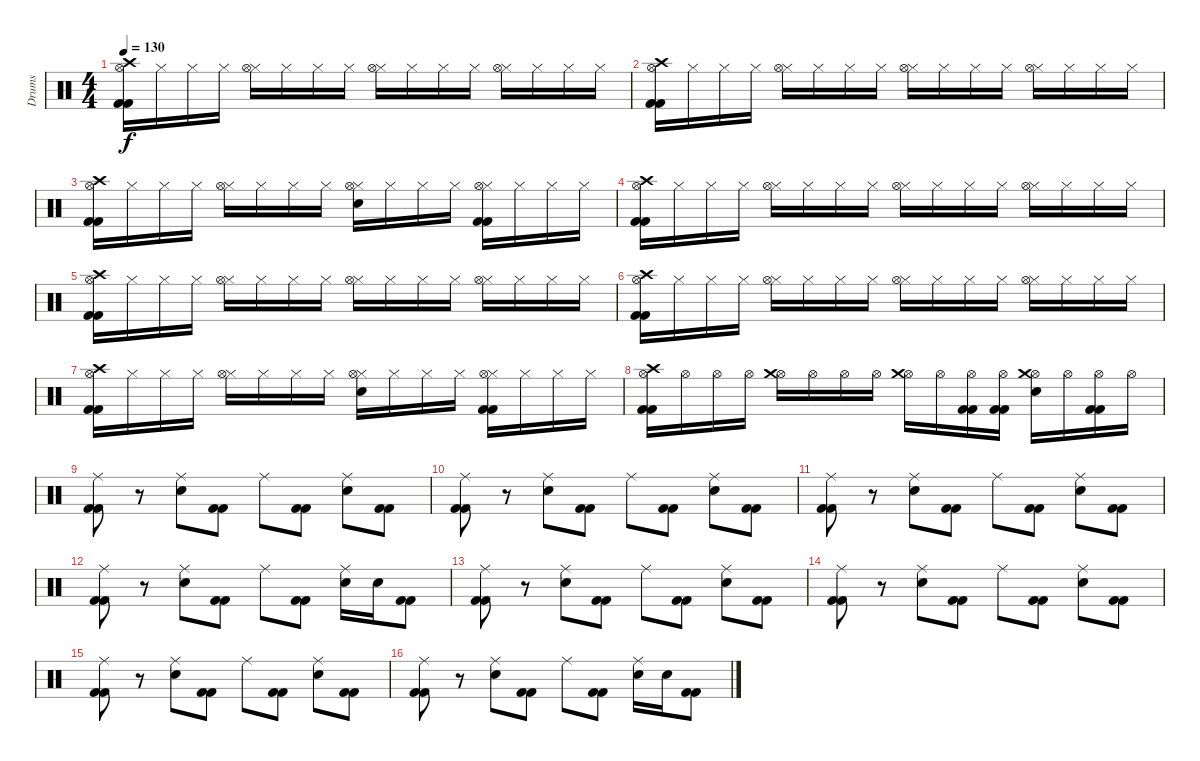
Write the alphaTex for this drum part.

\track ("Drums" "Drums") {instrument percussion}
\staff {score}
\articulation defaults
\ts (4 4)
\tempo 130
\clef neutral
\ks c
("Crash high (hit)" "Hi-Hat (open)" "Kick (hit) 2" "Kick (hit) 2").16{dy f} "Hi-Hat (closed)".16 "Hi-Hat (closed)".16 "Hi-Hat (closed)".16 ("Hi-Hat (closed)" "Hi-Hat (open)").16 "Hi-Hat (closed)".16 "Hi-Hat (closed)".16 "Hi-Hat (closed)".16 ("Hi-Hat (closed)" "Hi-Hat (open)").16 "Hi-Hat (closed)".16 "Hi-Hat (closed)".16 "Hi-Hat (closed)".16 ("Hi-Hat (closed)" "Hi-Hat (open)").16 "Hi-Hat (closed)".16 "Hi-Hat (closed)".16 "Hi-Hat (closed)".16 |
("Crash high (hit)" "Hi-Hat (open)" "Kick (hit) 2" "Kick (hit) 2").16 "Hi-Hat (closed)".16 "Hi-Hat (closed)".16 "Hi-Hat (closed)".16 ("Hi-Hat (closed)" "Hi-Hat (open)").16 "Hi-Hat (closed)".16 "Hi-Hat (closed)".16 "Hi-Hat (closed)".16 ("Hi-Hat (closed)" "Hi-Hat (open)").16 "Hi-Hat (closed)".16 "Hi-Hat (closed)".16 "Hi-Hat (closed)".16 ("Hi-Hat (closed)" "Hi-Hat (open)").16 "Hi-Hat (closed)".16 "Hi-Hat (closed)".16 "Hi-Hat (closed)".16 |
("Crash high (hit)" "Hi-Hat (open)" "Kick (hit) 2" "Kick (hit) 2").16 "Hi-Hat (closed)".16 "Hi-Hat (closed)".16 "Hi-Hat (closed)".16 ("Hi-Hat (closed)" "Hi-Hat (open)").16 "Hi-Hat (closed)".16 "Hi-Hat (closed)".16 "Hi-Hat (closed)".16 ("Hi-Hat (closed)" "Hi-Hat (open)" "Electric Snare (hit)").16 "Hi-Hat (closed)".16 "Hi-Hat (closed)".16 "Hi-Hat (closed)".16 ("Hi-Hat (closed)" "Hi-Hat (open)" "Kick (hit) 2" "Kick (hit) 2").16 "Hi-Hat (closed)".16 "Hi-Hat (closed)".16 "Hi-Hat (closed)".16 |
("Crash high (hit)" "Hi-Hat (open)" "Kick (hit) 2" "Kick (hit) 2").16 "Hi-Hat (closed)".16 "Hi-Hat (closed)".16 "Hi-Hat (closed)".16 ("Hi-Hat (closed)" "Hi-Hat (open)").16 "Hi-Hat (closed)".16 "Hi-Hat (closed)".16 "Hi-Hat (closed)".16 ("Hi-Hat (closed)" "Hi-Hat (open)").16 "Hi-Hat (closed)".16 "Hi-Hat (closed)".16 "Hi-Hat (closed)".16 ("Hi-Hat (closed)" "Hi-Hat (open)").16 "Hi-Hat (closed)".16 "Hi-Hat (closed)".16 "Hi-Hat (closed)".16 |
("Crash high (hit)" "Hi-Hat (open)" "Kick (hit) 2" "Kick (hit) 2").16 "Hi-Hat (closed)".16 "Hi-Hat (closed)".16 "Hi-Hat (closed)".16 ("Hi-Hat (closed)" "Hi-Hat (open)").16 "Hi-Hat (closed)".16 "Hi-Hat (closed)".16 "Hi-Hat (closed)".16 ("Hi-Hat (closed)" "Hi-Hat (open)").16 "Hi-Hat (closed)".16 "Hi-Hat (closed)".16 "Hi-Hat (closed)".16 ("Hi-Hat (closed)" "Hi-Hat (open)").16 "Hi-Hat (closed)".16 "Hi-Hat (closed)".16 "Hi-Hat (closed)".16 |
("Crash high (hit)" "Hi-Hat (open)" "Kick (hit) 2" "Kick (hit) 2").16 "Hi-Hat (closed)".16 "Hi-Hat (closed)".16 "Hi-Hat (closed)".16 ("Hi-Hat (closed)" "Hi-Hat (open)").16 "Hi-Hat (closed)".16 "Hi-Hat (closed)".16 "Hi-Hat (closed)".16 ("Hi-Hat (closed)" "Hi-Hat (open)").16 "Hi-Hat (closed)".16 "Hi-Hat (closed)".16 "Hi-Hat (closed)".16 ("Hi-Hat (closed)" "Hi-Hat (open)").16 "Hi-Hat (closed)".16 "Hi-Hat (closed)".16 "Hi-Hat (closed)".16 |
("Crash high (hit)" "Hi-Hat (open)" "Kick (hit) 2" "Kick (hit) 2").16 "Hi-Hat (closed)".16 "Hi-Hat (closed)".16 "Hi-Hat (closed)".16 ("Hi-Hat (closed)" "Hi-Hat (open)").16 "Hi-Hat (closed)".16 "Hi-Hat (closed)".16 "Hi-Hat (closed)".16 ("Hi-Hat (closed)" "Hi-Hat (open)" "Electric Snare (hit)").16 "Hi-Hat (closed)".16 "Hi-Hat (closed)".16 "Hi-Hat (closed)".16 ("Hi-Hat (closed)" "Hi-Hat (open)" "Kick (hit) 2" "Kick (hit) 2").16 "Hi-Hat (closed)".16 "Hi-Hat (closed)".16 "Hi-Hat (closed)".16 |
("Crash high (hit)" "Hi-Hat (open)" "Kick (hit) 2" "Kick (hit) 2").16 "Hi-Hat (open)".16 "Hi-Hat (open)".16 "Hi-Hat (open)".16 ("Hi-Hat (open)" "Crash medium (hit)").16 "Hi-Hat (open)".16 "Hi-Hat (open)".16 "Hi-Hat (open)".16 ("Hi-Hat (open)" "Crash medium (hit)").16 "Hi-Hat (open)".16 ("Hi-Hat (open)" "Kick (hit) 2" "Kick (hit) 2").16 ("Hi-Hat (open)" "Kick (hit) 2" "Kick (hit) 2").16 ("Hi-Hat (open)" "Crash medium (hit)" "Electric Snare (hit)").16 "Hi-Hat (open)".16 ("Hi-Hat (open)" "Kick (hit) 2" "Kick (hit) 2").16 "Hi-Hat (open)".16 |
("Ride (middle)" "Kick (hit) 2" "Kick (hit) 2").8 r.8 ("Ride (middle)" "Electric Snare (hit)").8 ("Kick (hit) 2" "Kick (hit) 2").8 "Ride (middle)".8 ("Kick (hit) 2" "Kick (hit) 2").8 ("Ride (middle)" "Electric Snare (hit)").8 ("Kick (hit) 2" "Kick (hit) 2").8 |
("Ride (middle)" "Kick (hit) 2" "Kick (hit) 2").8 r.8 ("Ride (middle)" "Electric Snare (hit)").8 ("Kick (hit) 2" "Kick (hit) 2").8 "Ride (middle)".8 ("Kick (hit) 2" "Kick (hit) 2").8 ("Ride (middle)" "Electric Snare (hit)").8 ("Kick (hit) 2" "Kick (hit) 2").8 |
("Ride (middle)" "Kick (hit) 2" "Kick (hit) 2").8 r.8 ("Ride (middle)" "Electric Snare (hit)").8 ("Kick (hit) 2" "Kick (hit) 2").8 "Ride (middle)".8 ("Kick (hit) 2" "Kick (hit) 2").8 ("Ride (middle)" "Electric Snare (hit)").8 ("Kick (hit) 2" "Kick (hit) 2").8 |
("Ride (middle)" "Kick (hit) 2" "Kick (hit) 2").8 r.8 ("Ride (middle)" "Electric Snare (hit)").8 ("Kick (hit) 2" "Kick (hit) 2").8 "Ride (middle)".8 ("Kick (hit) 2" "Kick (hit) 2").8 ("Ride (middle)" "Electric Snare (hit)").16 "Electric Snare (hit)".16 ("Kick (hit) 2" "Kick (hit) 2").8 |
("Ride (middle)" "Kick (hit) 2" "Kick (hit) 2").8 r.8 ("Ride (middle)" "Electric Snare (hit)").8 ("Kick (hit) 2" "Kick (hit) 2").8 "Ride (middle)".8 ("Kick (hit) 2" "Kick (hit) 2").8 ("Ride (middle)" "Electric Snare (hit)").8 ("Kick (hit) 2" "Kick (hit) 2").8 |
("Ride (middle)" "Kick (hit) 2" "Kick (hit) 2").8 r.8 ("Ride (middle)" "Electric Snare (hit)").8 ("Kick (hit) 2" "Kick (hit) 2").8 "Ride (middle)".8 ("Kick (hit) 2" "Kick (hit) 2").8 ("Ride (middle)" "Electric Snare (hit)").8 ("Kick (hit) 2" "Kick (hit) 2").8 |
("Ride (middle)" "Kick (hit) 2" "Kick (hit) 2").8 r.8 ("Ride (middle)" "Electric Snare (hit)").8 ("Kick (hit) 2" "Kick (hit) 2").8 "Ride (middle)".8 ("Kick (hit) 2" "Kick (hit) 2").8 ("Ride (middle)" "Electric Snare (hit)").8 ("Kick (hit) 2" "Kick (hit) 2").8 |
("Ride (middle)" "Kick (hit) 2" "Kick (hit) 2").8 r.8 ("Ride (middle)" "Electric Snare (hit)").8 ("Kick (hit) 2" "Kick (hit) 2").8 "Ride (middle)".8 ("Kick (hit) 2" "Kick (hit) 2").8 ("Ride (middle)" "Electric Snare (hit)").16 "Electric Snare (hit)".16 ("Kick (hit) 2" "Kick (hit) 2").8
